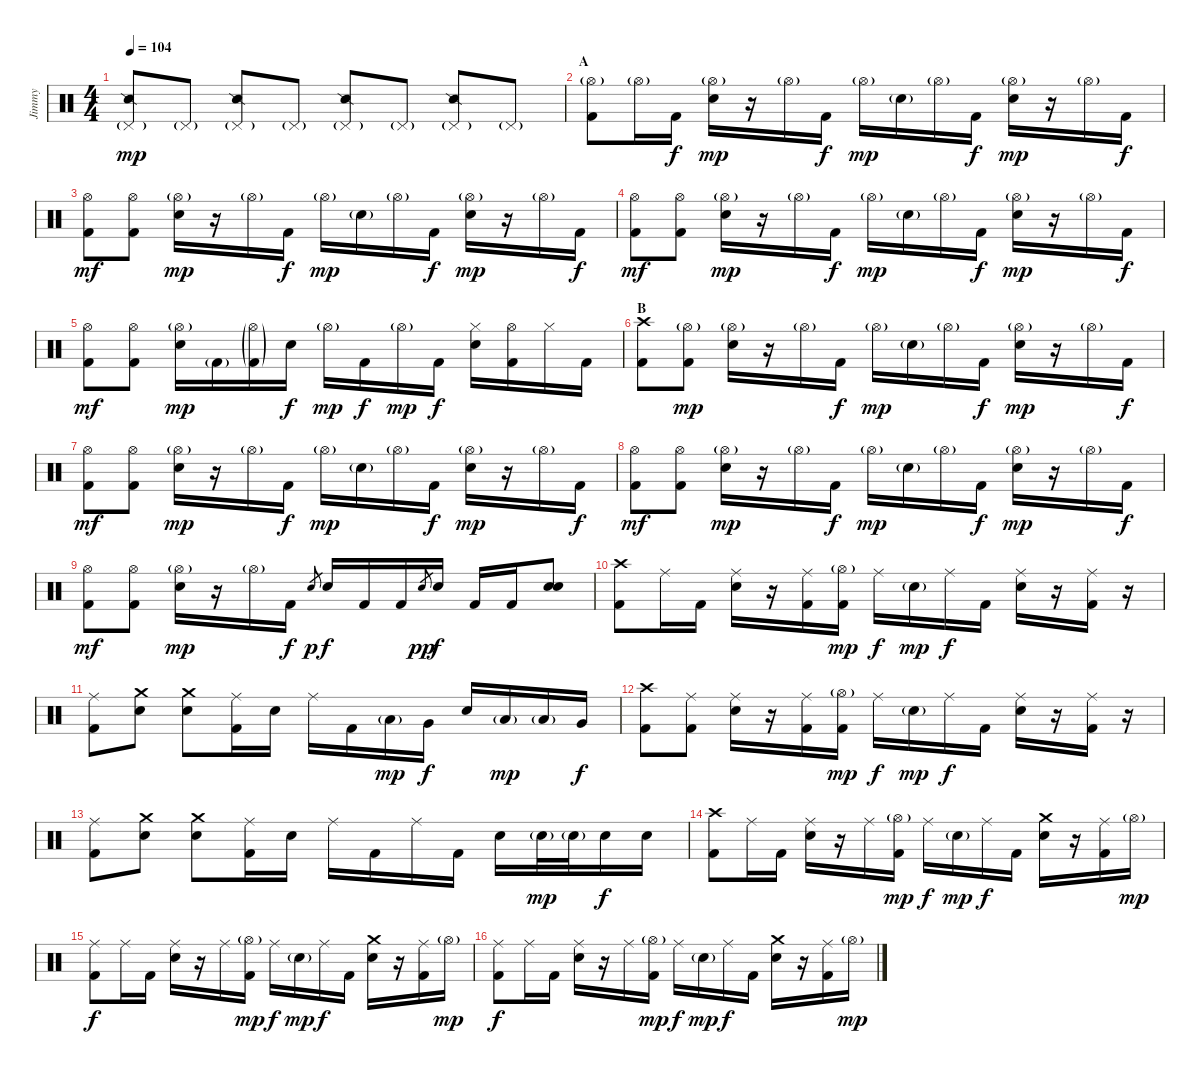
\track ("Jimmy" "Jimmy") {instrument percussion}
\staff {score}
\articulation defaults
\ts (4 4)
\tempo 104
\clef neutral
\ks c
("Pedal Hi-Hat (hit)"{g} "Snare (side stick) 2").8{dy mp} "Pedal Hi-Hat (hit)"{g}.8 ("Pedal Hi-Hat (hit)"{g} "Snare (side stick) 2").8 "Pedal Hi-Hat (hit)"{g}.8 ("Pedal Hi-Hat (hit)"{g} "Snare (side stick) 2").8 "Pedal Hi-Hat (hit)"{g}.8 ("Pedal Hi-Hat (hit)"{g} "Snare (side stick) 2").8 "Pedal Hi-Hat (hit)"{g}.8 |
\section ("" "A")
("Hi-Hat (open)"{g} "Kick (hit) 2").8 "Hi-Hat (open)"{g}.16 "Kick (hit) 2".16{dy f} ("Hi-Hat (open)"{g} "Electric Snare (hit)").16{dy mp} r.16 "Hi-Hat (open)"{g}.16 "Kick (hit) 2".16{dy f} "Hi-Hat (open)"{g}.16{dy mp} "Electric Snare (hit)"{g}.16 "Hi-Hat (open)"{g}.16 "Kick (hit) 2".16{dy f} ("Hi-Hat (open)"{g} "Electric Snare (hit)").16{dy mp} r.16 "Hi-Hat (open)"{g}.16 "Kick (hit) 2".16{dy f} |
("Hi-Hat (open)" "Kick (hit) 2").8{dy mf} ("Hi-Hat (open)" "Kick (hit) 2").8 ("Hi-Hat (open)"{g} "Electric Snare (hit)").16{dy mp} r.16 "Hi-Hat (open)"{g}.16 "Kick (hit) 2".16{dy f} "Hi-Hat (open)"{g}.16{dy mp} "Electric Snare (hit)"{g}.16 "Hi-Hat (open)"{g}.16 "Kick (hit) 2".16{dy f} ("Hi-Hat (open)"{g} "Electric Snare (hit)").16{dy mp} r.16 "Hi-Hat (open)"{g}.16 "Kick (hit) 2".16{dy f} |
("Hi-Hat (open)" "Kick (hit) 2").8{dy mf} ("Hi-Hat (open)" "Kick (hit) 2").8 ("Hi-Hat (open)"{g} "Electric Snare (hit)").16{dy mp} r.16 "Hi-Hat (open)"{g}.16 "Kick (hit) 2".16{dy f} "Hi-Hat (open)"{g}.16{dy mp} "Electric Snare (hit)"{g}.16 "Hi-Hat (open)"{g}.16 "Kick (hit) 2".16{dy f} ("Hi-Hat (open)"{g} "Electric Snare (hit)").16{dy mp} r.16 "Hi-Hat (open)"{g}.16 "Kick (hit) 2".16{dy f} |
("Hi-Hat (open)" "Kick (hit) 2").8{dy mf} ("Hi-Hat (open)" "Kick (hit) 2").8 ("Hi-Hat (open)"{g} "Electric Snare (hit)").16{dy mp} "Kick (hit) 2"{g}.16 ("Hi-Hat (open)"{g} "Kick (hit) 2"{g}).16 "Electric Snare (hit)".16{dy f} "Hi-Hat (open)"{g}.16{dy mp} "Kick (hit) 2".16{dy f} "Hi-Hat (open)"{g}.16{dy mp} "Kick (hit) 2".16{dy f} ("Hi-Hat (closed)" "Electric Snare (hit)").16 ("Hi-Hat (open)" "Kick (hit) 2").16 "Hi-Hat (closed)".16 "Kick (hit) 2".16 |
\section ("" "B")
("Crash high (hit)" "Kick (hit) 2").8 ("Hi-Hat (open)"{g} "Kick (hit) 2").8{dy mp} ("Hi-Hat (open)"{g} "Electric Snare (hit)").16 r.16 "Hi-Hat (open)"{g}.16 "Kick (hit) 2".16{dy f} "Hi-Hat (open)"{g}.16{dy mp} "Electric Snare (hit)"{g}.16 "Hi-Hat (open)"{g}.16 "Kick (hit) 2".16{dy f} ("Hi-Hat (open)"{g} "Electric Snare (hit)").16{dy mp} r.16 "Hi-Hat (open)"{g}.16 "Kick (hit) 2".16{dy f} |
("Hi-Hat (open)" "Kick (hit) 2").8{dy mf} ("Hi-Hat (open)" "Kick (hit) 2").8 ("Hi-Hat (open)"{g} "Electric Snare (hit)").16{dy mp} r.16 "Hi-Hat (open)"{g}.16 "Kick (hit) 2".16{dy f} "Hi-Hat (open)"{g}.16{dy mp} "Electric Snare (hit)"{g}.16 "Hi-Hat (open)"{g}.16 "Kick (hit) 2".16{dy f} ("Hi-Hat (open)"{g} "Electric Snare (hit)").16{dy mp} r.16 "Hi-Hat (open)"{g}.16 "Kick (hit) 2".16{dy f} |
("Hi-Hat (open)" "Kick (hit) 2").8{dy mf} ("Hi-Hat (open)" "Kick (hit) 2").8 ("Hi-Hat (open)"{g} "Electric Snare (hit)").16{dy mp} r.16 "Hi-Hat (open)"{g}.16 "Kick (hit) 2".16{dy f} "Hi-Hat (open)"{g}.16{dy mp} "Electric Snare (hit)"{g}.16 "Hi-Hat (open)"{g}.16 "Kick (hit) 2".16{dy f} ("Hi-Hat (open)"{g} "Electric Snare (hit)").16{dy mp} r.16 "Hi-Hat (open)"{g}.16 "Kick (hit) 2".16{dy f} |
("Hi-Hat (open)" "Kick (hit) 2").8{dy mf} ("Hi-Hat (open)" "Kick (hit) 2").8 ("Hi-Hat (open)"{g} "Electric Snare (hit)").16{dy mp} r.16 "Hi-Hat (open)"{g}.16 "Kick (hit) 2".16{dy f} "Electric Snare (hit)".8{gr dy p} "Electric Snare (hit)".16{dy f} "Kick (hit) 2".16 "Kick (hit) 2".16 "Electric Snare (hit)".8{gr dy pp} "Electric Snare (hit)".16{dy f} "Kick (hit) 2".16 "Kick (hit) 2".16 ("Electric Snare (hit)" "Electric Snare (hit)").8 |
("Crash high (hit)" "Kick (hit) 2").8 "Ride (middle)".16 "Kick (hit) 2".16 ("Ride (middle)" "Electric Snare (hit)").16 r.16 ("Ride (middle)" "Kick (hit) 2").16 ("Hi-Hat (open)"{g} "Kick (hit) 2").16{dy mp} "Ride (middle)".16{dy f} "Electric Snare (hit)"{g}.16{dy mp} "Ride (middle)".16{dy f} "Kick (hit) 2".16 ("Ride (middle)" "Electric Snare (hit)").16 r.16 ("Ride (middle)" "Kick (hit) 2").16 r.16 |
("Ride (middle)" "Kick (hit) 2").8 ("Crash medium (hit)" "Electric Snare (hit)").8 ("Crash medium (hit)" "Electric Snare (hit)").8 ("Ride (middle)" "Kick (hit) 2").16 "Electric Snare (hit)".16 "Ride (middle)".16 "Kick (hit) 2".16 "Low Tom (hit)"{g}.16{dy mp} "Very Low Tom (hit)".16{dy f} "Electric Snare (hit)".16 "Low Tom (hit)"{g}.16{dy mp} "Low Tom (hit)"{g}.16 "Very Low Tom (hit)".16{dy f} |
("Crash high (hit)" "Kick (hit) 2").8 ("Ride (middle)" "Kick (hit) 2").8 ("Ride (middle)" "Electric Snare (hit)").16 r.16 ("Ride (middle)" "Kick (hit) 2").16 ("Hi-Hat (open)"{g} "Kick (hit) 2").16{dy mp} "Ride (middle)".16{dy f} "Electric Snare (hit)"{g}.16{dy mp} "Ride (middle)".16{dy f} "Kick (hit) 2".16 ("Ride (middle)" "Electric Snare (hit)").16 r.16 ("Ride (middle)" "Kick (hit) 2").16 r.16 |
("Ride (middle)" "Kick (hit) 2").8 ("Crash medium (hit)" "Electric Snare (hit)").8 ("Crash medium (hit)" "Electric Snare (hit)").8 ("Ride (middle)" "Kick (hit) 2").16 "Electric Snare (hit)".16 "Ride (middle)".16 "Kick (hit) 2".16 "Ride (middle)".16 "Kick (hit) 2".16 "Electric Snare (hit)".16 "Electric Snare (hit)"{g}.32{dy mp} "Electric Snare (hit)"{g}.32 "Electric Snare (hit)".16{dy f} "Electric Snare (hit)".16 |
("Crash high (hit)" "Kick (hit) 2").8 "Ride (middle)".16 "Kick (hit) 2".16 ("Ride (middle)" "Electric Snare (hit)").16 r.16 "Ride (middle)".16 ("Hi-Hat (open)"{g} "Kick (hit) 2").16{dy mp} "Ride (middle)".16{dy f} "Electric Snare (hit)"{g}.16{dy mp} "Ride (middle)".16{dy f} "Kick (hit) 2".16 ("Crash medium (hit)" "Electric Snare (hit)").16 r.16 ("Ride (middle)" "Kick (hit) 2").16 "Hi-Hat (open)"{g}.16{dy mp} |
("Ride (middle)" "Kick (hit) 2").8{dy f} "Ride (middle)".16 "Kick (hit) 2".16 ("Ride (middle)" "Electric Snare (hit)").16 r.16 "Ride (middle)".16 ("Hi-Hat (open)"{g} "Kick (hit) 2").16{dy mp} "Ride (middle)".16{dy f} "Electric Snare (hit)"{g}.16{dy mp} "Ride (middle)".16{dy f} "Kick (hit) 2".16 ("Crash medium (hit)" "Electric Snare (hit)").16 r.16 ("Ride (middle)" "Kick (hit) 2").16 "Hi-Hat (open)"{g}.16{dy mp} |
("Ride (middle)" "Kick (hit) 2").8{dy f} "Ride (middle)".16 "Kick (hit) 2".16 ("Ride (middle)" "Electric Snare (hit)").16 r.16 "Ride (middle)".16 ("Hi-Hat (open)"{g} "Kick (hit) 2").16{dy mp} "Ride (middle)".16{dy f} "Electric Snare (hit)"{g}.16{dy mp} "Ride (middle)".16{dy f} "Kick (hit) 2".16 ("Crash medium (hit)" "Electric Snare (hit)").16 r.16 ("Ride (middle)" "Kick (hit) 2").16 "Hi-Hat (open)"{g}.16{dy mp}
